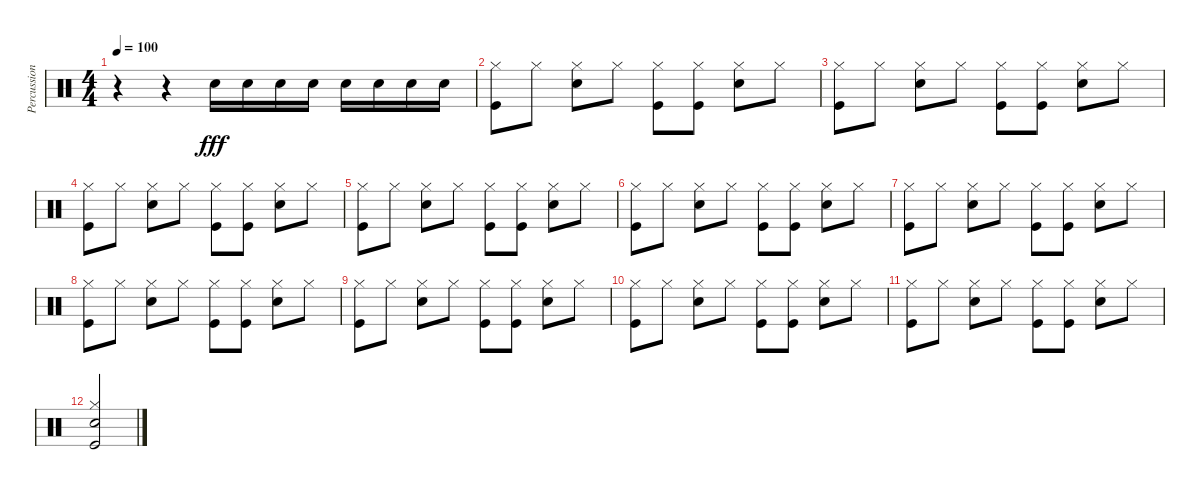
\track ("Percussion" "Percussion") {instrument percussion}
\staff {score}
\articulation defaults
\ts (4 4)
\tempo 100
\clef neutral
\ks c
r.4{dy fff} r.4 "Snare (hit) 2".16 "Snare (hit) 2".16 "Snare (hit) 2".16 "Snare (hit) 2".16 "Snare (hit) 2".16 "Snare (hit) 2".16 "Snare (hit) 2".16 "Snare (hit) 2".16 |
("Hi-Hat (closed)" "Kick (hit)").8 "Hi-Hat (closed)".8 ("Hi-Hat (closed)" "Snare (hit) 2").8 "Hi-Hat (closed)".8 ("Hi-Hat (closed)" "Kick (hit)").8 ("Hi-Hat (closed)" "Kick (hit)").8 ("Hi-Hat (closed)" "Snare (hit) 2").8 "Hi-Hat (closed)".8 |
("Hi-Hat (closed)" "Kick (hit)").8 "Hi-Hat (closed)".8 ("Hi-Hat (closed)" "Snare (hit) 2").8 "Hi-Hat (closed)".8 ("Hi-Hat (closed)" "Kick (hit)").8 ("Hi-Hat (closed)" "Kick (hit)").8 ("Hi-Hat (closed)" "Snare (hit) 2").8 "Hi-Hat (closed)".8 |
("Hi-Hat (closed)" "Kick (hit)").8 "Hi-Hat (closed)".8 ("Hi-Hat (closed)" "Snare (hit) 2").8 "Hi-Hat (closed)".8 ("Hi-Hat (closed)" "Kick (hit)").8 ("Hi-Hat (closed)" "Kick (hit)").8 ("Hi-Hat (closed)" "Snare (hit) 2").8 "Hi-Hat (closed)".8 |
("Hi-Hat (closed)" "Kick (hit)").8 "Hi-Hat (closed)".8 ("Hi-Hat (closed)" "Snare (hit) 2").8 "Hi-Hat (closed)".8 ("Hi-Hat (closed)" "Kick (hit)").8 ("Hi-Hat (closed)" "Kick (hit)").8 ("Hi-Hat (closed)" "Snare (hit) 2").8 "Hi-Hat (closed)".8 |
("Hi-Hat (closed)" "Kick (hit)").8 "Hi-Hat (closed)".8 ("Hi-Hat (closed)" "Snare (hit) 2").8 "Hi-Hat (closed)".8 ("Hi-Hat (closed)" "Kick (hit)").8 ("Hi-Hat (closed)" "Kick (hit)").8 ("Hi-Hat (closed)" "Snare (hit) 2").8 "Hi-Hat (closed)".8 |
("Hi-Hat (closed)" "Kick (hit)").8 "Hi-Hat (closed)".8 ("Hi-Hat (closed)" "Snare (hit) 2").8 "Hi-Hat (closed)".8 ("Hi-Hat (closed)" "Kick (hit)").8 ("Hi-Hat (closed)" "Kick (hit)").8 ("Hi-Hat (closed)" "Snare (hit) 2").8 "Hi-Hat (closed)".8 |
("Hi-Hat (closed)" "Kick (hit)").8 "Hi-Hat (closed)".8 ("Hi-Hat (closed)" "Snare (hit) 2").8 "Hi-Hat (closed)".8 ("Hi-Hat (closed)" "Kick (hit)").8 ("Hi-Hat (closed)" "Kick (hit)").8 ("Hi-Hat (closed)" "Snare (hit) 2").8 "Hi-Hat (closed)".8 |
("Hi-Hat (closed)" "Kick (hit)").8 "Hi-Hat (closed)".8 ("Hi-Hat (closed)" "Snare (hit) 2").8 "Hi-Hat (closed)".8 ("Hi-Hat (closed)" "Kick (hit)").8 ("Hi-Hat (closed)" "Kick (hit)").8 ("Hi-Hat (closed)" "Snare (hit) 2").8 "Hi-Hat (closed)".8 |
("Hi-Hat (closed)" "Kick (hit)").8 "Hi-Hat (closed)".8 ("Hi-Hat (closed)" "Snare (hit) 2").8 "Hi-Hat (closed)".8 ("Hi-Hat (closed)" "Kick (hit)").8 ("Hi-Hat (closed)" "Kick (hit)").8 ("Hi-Hat (closed)" "Snare (hit) 2").8 "Hi-Hat (closed)".8 |
("Hi-Hat (closed)" "Kick (hit)").8 "Hi-Hat (closed)".8 ("Hi-Hat (closed)" "Snare (hit) 2").8 "Hi-Hat (closed)".8 ("Hi-Hat (closed)" "Kick (hit)").8 ("Hi-Hat (closed)" "Kick (hit)").8 ("Hi-Hat (closed)" "Snare (hit) 2").8 "Hi-Hat (closed)".8 |
("Hi-Hat (closed)" "Kick (hit)" "Snare (hit) 2").2
